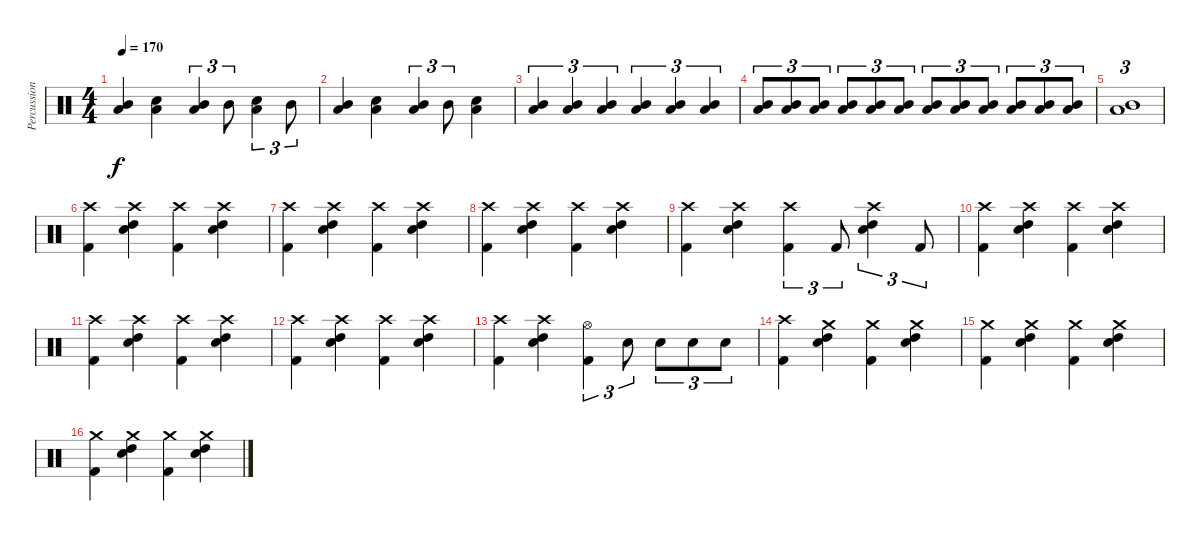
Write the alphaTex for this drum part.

\track ("Percussion" "Percussion") {instrument percussion}
\staff {score}
\articulation defaults
\ts (4 4)
\tempo 170
\clef neutral
\ks c
("Low Floor Tom (hit)" "Mid Tom (hit)").4{dy f} ("Low Floor Tom (hit)" "Snare (hit) 2").4 ("Low Floor Tom (hit)" "Mid Tom (hit)").4{tu (3 2)} "Mid Tom (hit)".8{tu (3 2)} ("Low Floor Tom (hit)" "Snare (hit) 2").4{tu (3 2)} "Mid Tom (hit)".8{tu (3 2)} |
("Low Floor Tom (hit)" "Mid Tom (hit)").4 ("Low Floor Tom (hit)" "Snare (hit) 2").4 ("Low Floor Tom (hit)" "Mid Tom (hit)").4{tu (3 2)} "Mid Tom (hit)".8{tu (3 2)} ("Low Floor Tom (hit)" "Snare (hit) 2").4 |
("Low Floor Tom (hit)" "Mid Tom (hit)").4{tu (3 2)} ("Low Floor Tom (hit)" "Mid Tom (hit)").4{tu (3 2)} ("Low Floor Tom (hit)" "Mid Tom (hit)").4{tu (3 2)} ("Low Floor Tom (hit)" "Mid Tom (hit)").4{tu (3 2)} ("Low Floor Tom (hit)" "Mid Tom (hit)").4{tu (3 2)} ("Low Floor Tom (hit)" "Mid Tom (hit)").4{tu (3 2)} |
("Low Floor Tom (hit)" "Mid Tom (hit)").8{tu (3 2)} ("Low Floor Tom (hit)" "Mid Tom (hit)").8{tu (3 2)} ("Low Floor Tom (hit)" "Mid Tom (hit)").8{tu (3 2)} ("Low Floor Tom (hit)" "Mid Tom (hit)").8{tu (3 2)} ("Low Floor Tom (hit)" "Mid Tom (hit)").8{tu (3 2)} ("Low Floor Tom (hit)" "Mid Tom (hit)").8{tu (3 2)} ("Low Floor Tom (hit)" "Mid Tom (hit)").8{tu (3 2)} ("Low Floor Tom (hit)" "Mid Tom (hit)").8{tu (3 2)} ("Low Floor Tom (hit)" "Mid Tom (hit)").8{tu (3 2)} ("Low Floor Tom (hit)" "Mid Tom (hit)").8{tu (3 2)} ("Low Floor Tom (hit)" "Mid Tom (hit)").8{tu (3 2)} ("Low Floor Tom (hit)" "Mid Tom (hit)").8{tu (3 2)} |
("Low Floor Tom (hit)" "Mid Tom (hit)").1{tu (3 2)} |
("Crash high (hit)" "Kick (hit) 2").4 ("Crash high (hit)" "High Tom (hit)" "Snare (hit) 2").4 ("Crash high (hit)" "Kick (hit) 2").4 ("Crash high (hit)" "High Tom (hit)" "Snare (hit) 2").4 |
("Crash high (hit)" "Kick (hit) 2").4 ("Crash high (hit)" "High Tom (hit)" "Snare (hit) 2").4 ("Crash high (hit)" "Kick (hit) 2").4 ("Crash high (hit)" "High Tom (hit)" "Snare (hit) 2").4 |
("Crash high (hit)" "Kick (hit) 2").4 ("Crash high (hit)" "High Tom (hit)" "Snare (hit) 2").4 ("Crash high (hit)" "Kick (hit) 2").4 ("Crash high (hit)" "High Tom (hit)" "Snare (hit) 2").4 |
("Crash high (hit)" "Kick (hit) 2").4 ("Crash high (hit)" "High Tom (hit)" "Snare (hit) 2").4 ("Crash high (hit)" "Kick (hit) 2").4{tu (3 2)} "Kick (hit) 2".8{tu (3 2)} ("Crash high (hit)" "High Tom (hit)" "Snare (hit) 2").4{tu (3 2)} "Kick (hit) 2".8{tu (3 2)} |
("Crash high (hit)" "Kick (hit) 2").4 ("Crash high (hit)" "High Tom (hit)" "Snare (hit) 2").4 ("Crash high (hit)" "Kick (hit) 2").4 ("Crash high (hit)" "High Tom (hit)" "Snare (hit) 2").4 |
("Crash high (hit)" "Kick (hit) 2").4 ("Crash high (hit)" "High Tom (hit)" "Snare (hit) 2").4 ("Crash high (hit)" "Kick (hit) 2").4 ("Crash high (hit)" "High Tom (hit)" "Snare (hit) 2").4 |
("Crash high (hit)" "Kick (hit) 2").4 ("Crash high (hit)" "High Tom (hit)" "Snare (hit) 2").4 ("Crash high (hit)" "Kick (hit) 2").4 ("Crash high (hit)" "High Tom (hit)" "Snare (hit) 2").4 |
("Crash high (hit)" "Kick (hit) 2").4 ("Crash high (hit)" "High Tom (hit)" "Snare (hit) 2").4 ("Hi-Hat (open)" "Kick (hit) 2").4{tu (3 2)} "Snare (hit) 2".8{tu (3 2)} "Snare (hit) 2".8{tu (3 2)} "Snare (hit) 2".8{tu (3 2)} "Snare (hit) 2".8{tu (3 2)} |
("Crash high (hit)" "Kick (hit) 2").4 ("Crash medium (hit)" "High Tom (hit)" "Snare (hit) 2").4 ("Crash medium (hit)" "Kick (hit) 2").4 ("Crash medium (hit)" "High Tom (hit)" "Snare (hit) 2").4 |
("Crash medium (hit)" "Kick (hit) 2").4 ("Crash medium (hit)" "High Tom (hit)" "Snare (hit) 2").4 ("Crash medium (hit)" "Kick (hit) 2").4 ("Crash medium (hit)" "High Tom (hit)" "Snare (hit) 2").4 |
("Crash medium (hit)" "Kick (hit) 2").4 ("Crash medium (hit)" "High Tom (hit)" "Snare (hit) 2").4 ("Crash medium (hit)" "Kick (hit) 2").4 ("Crash medium (hit)" "High Tom (hit)" "Snare (hit) 2").4
